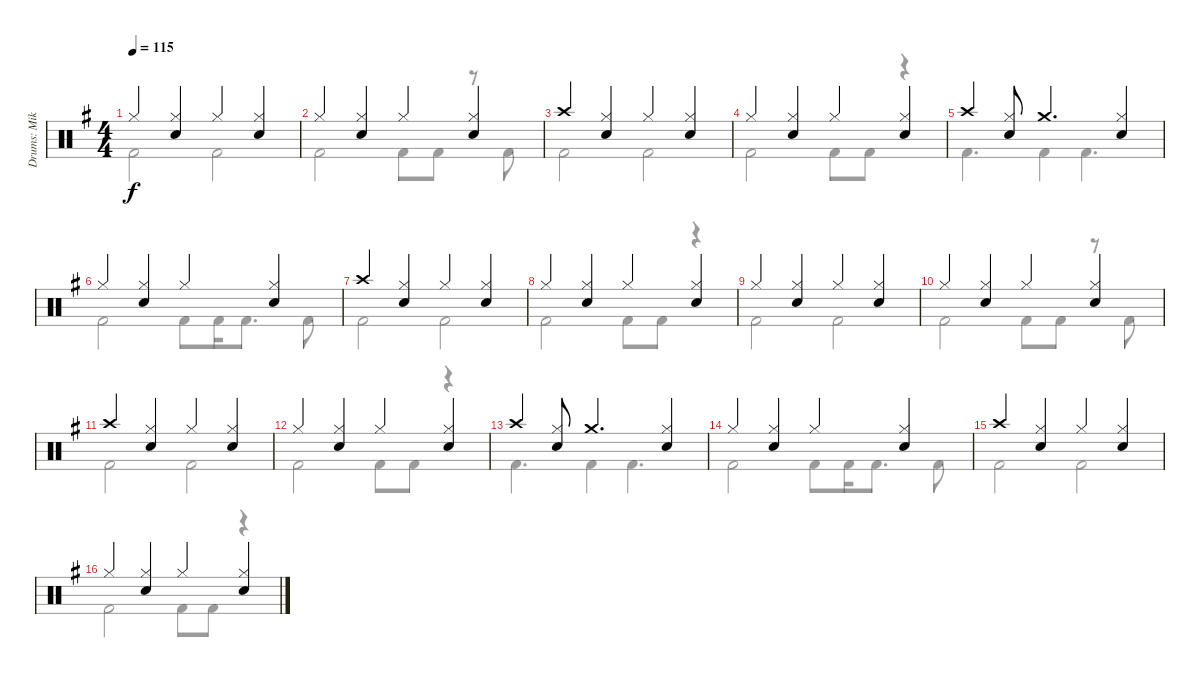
\track ("Drums: Mikkey" "Drums: Mik") {instrument percussion}
\staff {score}
\articulation defaults
\voice
\ts (4 4)
\tempo 115
\clef neutral
\ks g "Hi-Hat (closed)".4{dy f}
("Hi-Hat (closed)" "Snare (hit) 2").4 "Hi-Hat (closed)".4 ("Hi-Hat (closed)" "Snare (hit) 2").4 |
"Hi-Hat (closed)".4 ("Hi-Hat (closed)" "Snare (hit) 2").4 "Hi-Hat (closed)".4 ("Hi-Hat (closed)" "Snare (hit) 2").4 |
"Crash high (hit)".4 ("Hi-Hat (closed)" "Snare (hit) 2").4 "Hi-Hat (closed)".4 ("Hi-Hat (closed)" "Snare (hit) 2").4 |
"Hi-Hat (closed)".4 ("Hi-Hat (closed)" "Snare (hit) 2").4 "Hi-Hat (closed)".4 ("Hi-Hat (closed)" "Snare (hit) 2").4 |
"Crash high (hit)".4 ("Hi-Hat (closed)" "Snare (hit) 2").8 "Crash medium (hit)".4{d} ("Hi-Hat (closed)" "Snare (hit) 2").4 |
"Hi-Hat (closed)".4 ("Hi-Hat (closed)" "Snare (hit) 2").4 "Hi-Hat (closed)".4 ("Hi-Hat (closed)" "Snare (hit) 2").4 |
"Crash high (hit)".4 ("Hi-Hat (closed)" "Snare (hit) 2").4 "Hi-Hat (closed)".4 ("Hi-Hat (closed)" "Snare (hit) 2").4 |
"Hi-Hat (closed)".4 ("Hi-Hat (closed)" "Snare (hit) 2").4 "Hi-Hat (closed)".4 ("Hi-Hat (closed)" "Snare (hit) 2").4 |
"Hi-Hat (closed)".4 ("Hi-Hat (closed)" "Snare (hit) 2").4 "Hi-Hat (closed)".4 ("Hi-Hat (closed)" "Snare (hit) 2").4 |
"Hi-Hat (closed)".4 ("Hi-Hat (closed)" "Snare (hit) 2").4 "Hi-Hat (closed)".4 ("Hi-Hat (closed)" "Snare (hit) 2").4 |
"Crash high (hit)".4 ("Hi-Hat (closed)" "Snare (hit) 2").4 "Hi-Hat (closed)".4 ("Hi-Hat (closed)" "Snare (hit) 2").4 |
"Hi-Hat (closed)".4 ("Hi-Hat (closed)" "Snare (hit) 2").4 "Hi-Hat (closed)".4 ("Hi-Hat (closed)" "Snare (hit) 2").4 |
"Crash high (hit)".4 ("Hi-Hat (closed)" "Snare (hit) 2").8 "Crash medium (hit)".4{d} ("Hi-Hat (closed)" "Snare (hit) 2").4 |
"Hi-Hat (closed)".4 ("Hi-Hat (closed)" "Snare (hit) 2").4 "Hi-Hat (closed)".4 ("Hi-Hat (closed)" "Snare (hit) 2").4 |
"Crash high (hit)".4 ("Hi-Hat (closed)" "Snare (hit) 2").4 "Hi-Hat (closed)".4 ("Hi-Hat (closed)" "Snare (hit) 2").4 |
"Hi-Hat (closed)".4 ("Hi-Hat (closed)" "Snare (hit) 2").4 "Hi-Hat (closed)".4 ("Hi-Hat (closed)" "Snare (hit) 2").4
\voice
\clef neutral
\ottava regular
\simile none
\ks g "Kick (hit) 2".2{dy f} "Kick (hit) 2".2
|
"Kick (hit) 2".2 "Kick (hit) 2".8 "Kick (hit) 2".8 r.8 "Kick (hit) 2".8 |
"Kick (hit) 2".2 "Kick (hit) 2".2 |
"Kick (hit) 2".2 "Kick (hit) 2".8 "Kick (hit) 2".8 r.4 |
"Kick (hit) 2".4{d} "Kick (hit) 2".4 "Kick (hit) 2".4{d} |
"Kick (hit) 2".2 "Kick (hit) 2".8 "Kick (hit) 2".16 "Kick (hit) 2".8{d} "Kick (hit) 2".8 |
"Kick (hit) 2".2 "Kick (hit) 2".2 |
"Kick (hit) 2".2 "Kick (hit) 2".8 "Kick (hit) 2".8 r.4 |
"Kick (hit) 2".2 "Kick (hit) 2".2 |
"Kick (hit) 2".2 "Kick (hit) 2".8 "Kick (hit) 2".8 r.8 "Kick (hit) 2".8 |
"Kick (hit) 2".2 "Kick (hit) 2".2 |
"Kick (hit) 2".2 "Kick (hit) 2".8 "Kick (hit) 2".8 r.4 |
"Kick (hit) 2".4{d} "Kick (hit) 2".4 "Kick (hit) 2".4{d} |
"Kick (hit) 2".2 "Kick (hit) 2".8 "Kick (hit) 2".16 "Kick (hit) 2".8{d} "Kick (hit) 2".8 |
"Kick (hit) 2".2 "Kick (hit) 2".2 |
"Kick (hit) 2".2 "Kick (hit) 2".8 "Kick (hit) 2".8 r.4
